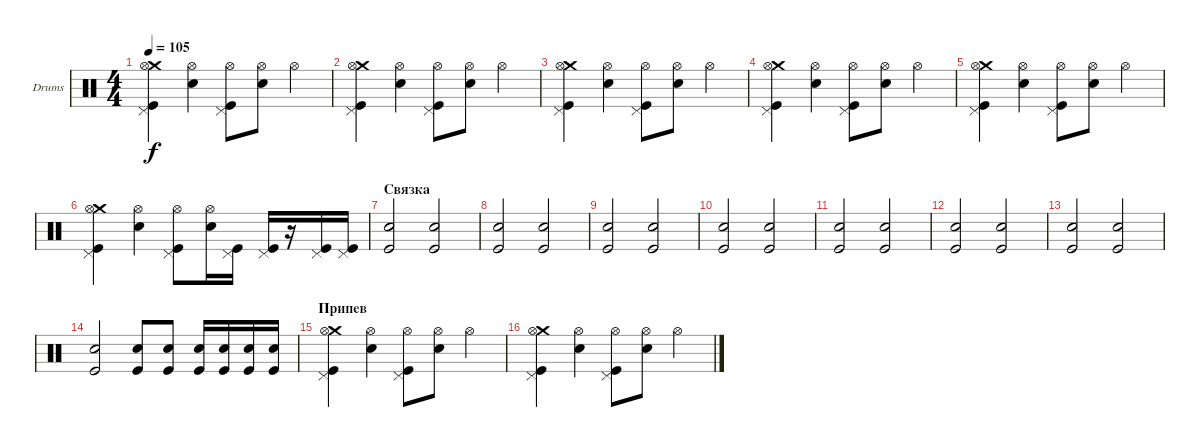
\defaultSystemsLayout 4
\bracketExtendMode groupsimilarinstruments
\firstSystemTrackNameOrientation horizontal
\otherSystemsTrackNameOrientation horizontal
\track ("Е. Кулаков" "Drums") {instrument percussion}
\staff {score}
\articulation defaults
\ts (4 4)
\tempo 105
\clef neutral
\ks c
("Crash medium (hit)" "Pedal Hi-Hat (hit)" "Kick (hit)" "Hi-Hat (open)").4{dy f} ("Snare (hit) 2" "Hi-Hat (open)").4 ("Pedal Hi-Hat (hit)" "Kick (hit)" "Hi-Hat (open)").8 ("Snare (hit) 2" "Hi-Hat (open)").8 "Hi-Hat (open)".4 |
("Crash medium (hit)" "Pedal Hi-Hat (hit)" "Kick (hit)" "Hi-Hat (open)").4 ("Snare (hit) 2" "Hi-Hat (open)").4 ("Pedal Hi-Hat (hit)" "Kick (hit)" "Hi-Hat (open)").8 ("Snare (hit) 2" "Hi-Hat (open)").8 "Hi-Hat (open)".4 |
("Crash medium (hit)" "Pedal Hi-Hat (hit)" "Kick (hit)" "Hi-Hat (open)").4 ("Snare (hit) 2" "Hi-Hat (open)").4 ("Pedal Hi-Hat (hit)" "Kick (hit)" "Hi-Hat (open)").8 ("Snare (hit) 2" "Hi-Hat (open)").8 "Hi-Hat (open)".4 |
("Crash medium (hit)" "Pedal Hi-Hat (hit)" "Kick (hit)" "Hi-Hat (open)").4 ("Snare (hit) 2" "Hi-Hat (open)").4 ("Pedal Hi-Hat (hit)" "Kick (hit)" "Hi-Hat (open)").8 ("Snare (hit) 2" "Hi-Hat (open)").8 "Hi-Hat (open)".4 |
("Crash medium (hit)" "Pedal Hi-Hat (hit)" "Kick (hit)" "Hi-Hat (open)").4 ("Snare (hit) 2" "Hi-Hat (open)").4 ("Pedal Hi-Hat (hit)" "Kick (hit)" "Hi-Hat (open)").8 ("Snare (hit) 2" "Hi-Hat (open)").8 "Hi-Hat (open)".4 |
("Crash medium (hit)" "Pedal Hi-Hat (hit)" "Kick (hit)" "Hi-Hat (open)").4 ("Snare (hit) 2" "Hi-Hat (open)").4 ("Pedal Hi-Hat (hit)" "Kick (hit)" "Hi-Hat (open)").8 ("Snare (hit) 2" "Hi-Hat (open)").16 ("Pedal Hi-Hat (hit)" "Kick (hit)").16 ("Pedal Hi-Hat (hit)" "Kick (hit)").16 r.16 ("Pedal Hi-Hat (hit)" "Kick (hit)").16 ("Pedal Hi-Hat (hit)" "Kick (hit)").16 |
\section ("" "Связка")
("Kick (hit)" "Snare (hit) 2").2 ("Kick (hit)" "Snare (hit) 2").2 |
("Kick (hit)" "Snare (hit) 2").2 ("Kick (hit)" "Snare (hit) 2").2 |
("Kick (hit)" "Snare (hit) 2").2 ("Kick (hit)" "Snare (hit) 2").2 |
("Kick (hit)" "Snare (hit) 2").2 ("Kick (hit)" "Snare (hit) 2").2 |
("Kick (hit)" "Snare (hit) 2").2 ("Kick (hit)" "Snare (hit) 2").2 |
("Kick (hit)" "Snare (hit) 2").2 ("Kick (hit)" "Snare (hit) 2").2 |
("Kick (hit)" "Snare (hit) 2").2 ("Kick (hit)" "Snare (hit) 2").2 |
("Kick (hit)" "Snare (hit) 2").2 ("Kick (hit)" "Snare (hit) 2").8 ("Kick (hit)" "Snare (hit) 2").8 ("Kick (hit)" "Snare (hit) 2").16 ("Kick (hit)" "Snare (hit) 2").16 ("Kick (hit)" "Snare (hit) 2").16 ("Kick (hit)" "Snare (hit) 2").16 |
\section ("" "Припев")
("Crash medium (hit)" "Pedal Hi-Hat (hit)" "Kick (hit)" "Hi-Hat (open)").4 ("Snare (hit) 2" "Hi-Hat (open)").4 ("Pedal Hi-Hat (hit)" "Kick (hit)" "Hi-Hat (open)").8 ("Snare (hit) 2" "Hi-Hat (open)").8 "Hi-Hat (open)".4 |
("Crash medium (hit)" "Pedal Hi-Hat (hit)" "Kick (hit)" "Hi-Hat (open)").4 ("Snare (hit) 2" "Hi-Hat (open)").4 ("Pedal Hi-Hat (hit)" "Kick (hit)" "Hi-Hat (open)").8 ("Snare (hit) 2" "Hi-Hat (open)").8 "Hi-Hat (open)".4
